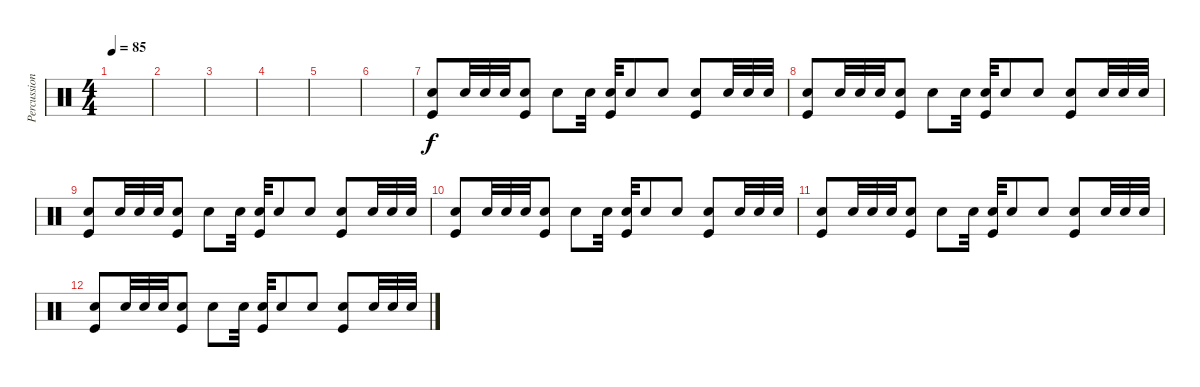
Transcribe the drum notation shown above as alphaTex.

\track ("Percussion" "Percussion") {instrument percussion}
\staff {score}
\articulation defaults
\ts (4 4)
\tempo 85
\clef neutral
\ks c
|
|
|
|
|
|
("Snare (hit) 2" "Kick (hit)").8 "Snare (hit) 2".32 "Snare (hit) 2".32 "Snare (hit) 2".32 ("Snare (hit) 2" "Kick (hit)").8 "Snare (hit) 2".8 "Snare (hit) 2".32 ("Snare (hit) 2" "Kick (hit)").32 "Snare (hit) 2".8 "Snare (hit) 2".8 ("Snare (hit) 2" "Kick (hit)").8 "Snare (hit) 2".32 "Snare (hit) 2".32 "Snare (hit) 2".32 |
("Snare (hit) 2" "Kick (hit)").8 "Snare (hit) 2".32 "Snare (hit) 2".32 "Snare (hit) 2".32 ("Snare (hit) 2" "Kick (hit)").8 "Snare (hit) 2".8 "Snare (hit) 2".32 ("Snare (hit) 2" "Kick (hit)").32 "Snare (hit) 2".8 "Snare (hit) 2".8 ("Snare (hit) 2" "Kick (hit)").8 "Snare (hit) 2".32 "Snare (hit) 2".32 "Snare (hit) 2".32 |
("Snare (hit) 2" "Kick (hit)").8 "Snare (hit) 2".32 "Snare (hit) 2".32 "Snare (hit) 2".32 ("Snare (hit) 2" "Kick (hit)").8 "Snare (hit) 2".8 "Snare (hit) 2".32 ("Snare (hit) 2" "Kick (hit)").32 "Snare (hit) 2".8 "Snare (hit) 2".8 ("Snare (hit) 2" "Kick (hit)").8 "Snare (hit) 2".32 "Snare (hit) 2".32 "Snare (hit) 2".32 |
("Snare (hit) 2" "Kick (hit)").8 "Snare (hit) 2".32 "Snare (hit) 2".32 "Snare (hit) 2".32 ("Snare (hit) 2" "Kick (hit)").8 "Snare (hit) 2".8 "Snare (hit) 2".32 ("Snare (hit) 2" "Kick (hit)").32 "Snare (hit) 2".8 "Snare (hit) 2".8 ("Snare (hit) 2" "Kick (hit)").8 "Snare (hit) 2".32 "Snare (hit) 2".32 "Snare (hit) 2".32 |
("Snare (hit) 2" "Kick (hit)").8 "Snare (hit) 2".32 "Snare (hit) 2".32 "Snare (hit) 2".32 ("Snare (hit) 2" "Kick (hit)").8 "Snare (hit) 2".8 "Snare (hit) 2".32 ("Snare (hit) 2" "Kick (hit)").32 "Snare (hit) 2".8 "Snare (hit) 2".8 ("Snare (hit) 2" "Kick (hit)").8 "Snare (hit) 2".32 "Snare (hit) 2".32 "Snare (hit) 2".32 |
("Snare (hit) 2" "Kick (hit)").8 "Snare (hit) 2".32 "Snare (hit) 2".32 "Snare (hit) 2".32 ("Snare (hit) 2" "Kick (hit)").8 "Snare (hit) 2".8 "Snare (hit) 2".32 ("Snare (hit) 2" "Kick (hit)").32 "Snare (hit) 2".8 "Snare (hit) 2".8 ("Snare (hit) 2" "Kick (hit)").8 "Snare (hit) 2".32 "Snare (hit) 2".32 "Snare (hit) 2".32
